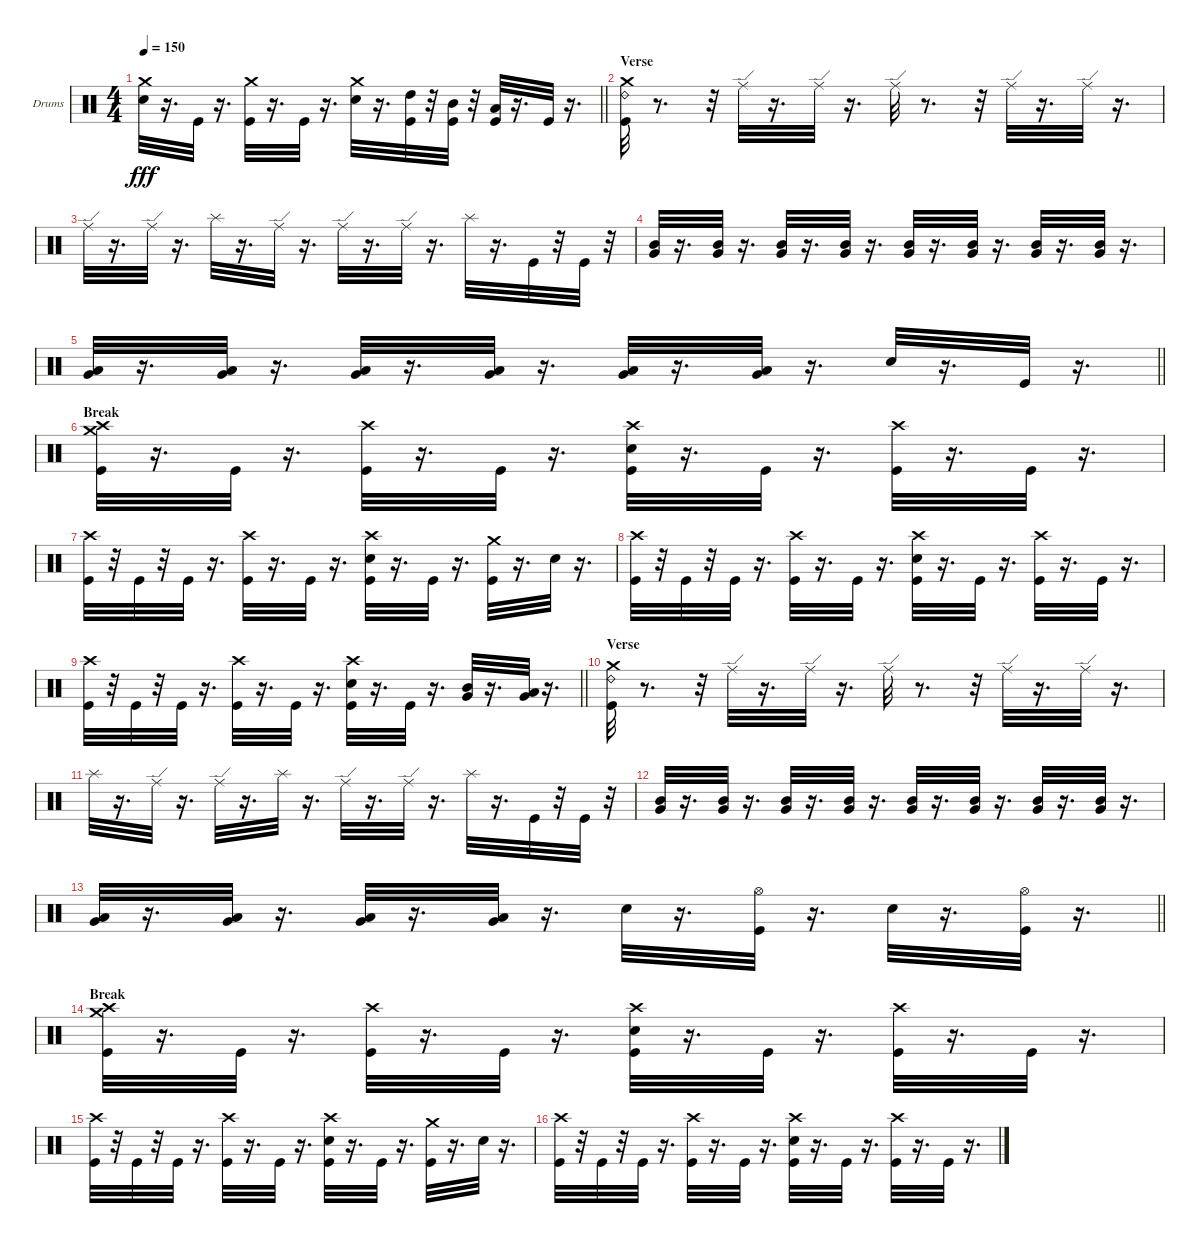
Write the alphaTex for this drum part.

\bracketExtendMode groupsimilarinstruments
\firstSystemTrackNameOrientation horizontal
\otherSystemsTrackNameOrientation horizontal
\track ("Dave McClain" "Drums") {mute instrument percussion}
\staff {score}
\articulation defaults
\ts (4 4)
\tempo 150
\clef neutral
\barLineRight lightlight
\ks c
("Snare (hit) 2" "Crash medium (hit)").32{dy fff} r.16{d} "Kick (hit)".32 r.16{d} ("Kick (hit)" "Crash medium (hit)").32 r.16{d} "Kick (hit)".32 r.16{d} ("Snare (hit) 2" "Crash medium (hit)").32 r.16{d} ("High Tom (hit)" "Kick (hit)").32 r.32 ("Mid Tom (hit)" "Kick (hit)").32 r.32 ("Low Tom (hit)" "Kick (hit)").32 r.16{d} "Kick (hit)".32 r.16{d} |
\section ("" "Verse")
("Ride (bell) 2" "Crash medium (hit)" "Kick (hit)").32 r.8{d} r.32 "Ride (edge)".32 r.16{d} "Ride (edge)".32 r.16{d} "Ride (edge)".32 r.8{d} r.32 "Ride (edge)".32 r.16{d} "Ride (edge)".32 r.16{d} |
"Ride (edge)".32 r.16{d} "Ride (edge)".32 r.16{d} "Splash (hit)".32 r.16{d} "Ride (edge)".32 r.16{d} "Ride (edge)".32 r.16{d} "Ride (edge)".32 r.16{d} "Splash (hit)".32 r.16{d} "Kick (hit)".32 r.32 "Kick (hit)".32 r.32 |
("Mid Tom (hit)" "Very Low Tom (hit)").32 r.16{d} ("Mid Tom (hit)" "Very Low Tom (hit)").32 r.16{d} ("Mid Tom (hit)" "Very Low Tom (hit)").32 r.16{d} ("Mid Tom (hit)" "Very Low Tom (hit)").32 r.16{d} ("Mid Tom (hit)" "Very Low Tom (hit)").32 r.16{d} ("Mid Tom (hit)" "Very Low Tom (hit)").32 r.16{d} ("Mid Tom (hit)" "Very Low Tom (hit)").32 r.16{d} ("Mid Tom (hit)" "Very Low Tom (hit)").32 r.16{d} |
\barLineRight lightlight
("Low Tom (hit)" "Very Low Tom (hit)").32 r.16{d} ("Low Tom (hit)" "Very Low Tom (hit)").32 r.16{d} ("Low Tom (hit)" "Very Low Tom (hit)").32 r.16{d} ("Low Tom (hit)" "Very Low Tom (hit)").32 r.16{d} ("Low Tom (hit)" "Very Low Tom (hit)").32 r.16{d} ("Low Tom (hit)" "Very Low Tom (hit)").32 r.16{d} "Snare (hit) 2".32 r.16{d} "Kick (hit)".32 r.16{d} |
\section ("" "Break")
("Crash high (hit)" "Crash medium (hit)" "Kick (hit)").32 r.16{d} "Kick (hit)".32 r.16{d} ("Crash high (hit)" "Kick (hit)").32 r.16{d} "Kick (hit)".32 r.16{d} ("Snare (hit) 2" "Crash high (hit)" "Kick (hit)").32 r.16{d} "Kick (hit)".32 r.16{d} ("Crash high (hit)" "Kick (hit)").32 r.16{d} "Kick (hit)".32 r.16{d} |
("Crash high (hit)" "Kick (hit)").32 r.32 "Kick (hit)".32 r.32 "Kick (hit)".32 r.16{d} ("Crash high (hit)" "Kick (hit)").32 r.16{d} "Kick (hit)".32 r.16{d} ("Snare (hit) 2" "Crash high (hit)" "Kick (hit)").32 r.16{d} "Kick (hit)".32 r.16{d} ("Crash medium (hit)" "Kick (hit)").32 r.16{d} "Snare (hit) 2".32 r.16{d} |
("Crash high (hit)" "Kick (hit)").32 r.32 "Kick (hit)".32 r.32 "Kick (hit)".32 r.16{d} ("Kick (hit)" "Crash high (hit)").32 r.16{d} "Kick (hit)".32 r.16{d} ("Snare (hit) 2" "Kick (hit)" "Crash high (hit)").32 r.16{d} "Kick (hit)".32 r.16{d} ("Crash high (hit)" "Kick (hit)").32 r.16{d} "Kick (hit)".32 r.16{d} |
\barLineRight lightlight
("Crash high (hit)" "Kick (hit)").32 r.32 "Kick (hit)".32 r.32 "Kick (hit)".32 r.16{d} ("Crash high (hit)" "Kick (hit)").32 r.16{d} "Kick (hit)".32 r.16{d} ("Snare (hit) 2" "Crash high (hit)" "Kick (hit)").32 r.16{d} "Kick (hit)".32 r.16{d} ("Mid Tom (hit)" "Very Low Tom (hit)").32 r.16{d} ("Very Low Tom (hit)" "Low Tom (hit)").32 r.16{d} |
\section ("" "Verse")
("Ride (bell) 2" "Crash medium (hit)" "Kick (hit)").32 r.8{d} r.32 "Ride (edge)".32 r.16{d} "Ride (edge)".32 r.16{d} "Ride (edge)".32 r.8{d} r.32 "Ride (edge)".32 r.16{d} "Ride (edge)".32 r.16{d} |
"Splash (hit)".32 r.16{d} "Ride (edge)".32 r.16{d} "Ride (edge)".32 r.16{d} "Splash (hit)".32 r.16{d} "Ride (edge)".32 r.16{d} "Ride (edge)".32 r.16{d} "Splash (hit)".32 r.16{d} "Kick (hit)".32 r.32 "Kick (hit)".32 r.32 |
("Mid Tom (hit)" "Very Low Tom (hit)").32 r.16{d} ("Mid Tom (hit)" "Very Low Tom (hit)").32 r.16{d} ("Mid Tom (hit)" "Very Low Tom (hit)").32 r.16{d} ("Mid Tom (hit)" "Very Low Tom (hit)").32 r.16{d} ("Mid Tom (hit)" "Very Low Tom (hit)").32 r.16{d} ("Mid Tom (hit)" "Very Low Tom (hit)").32 r.16{d} ("Mid Tom (hit)" "Very Low Tom (hit)").32 r.16{d} ("Mid Tom (hit)" "Very Low Tom (hit)").32 r.16{d} |
\barLineRight lightlight
("Low Tom (hit)" "Very Low Tom (hit)").32 r.16{d} ("Low Tom (hit)" "Very Low Tom (hit)").32 r.16{d} ("Low Tom (hit)" "Very Low Tom (hit)").32 r.16{d} ("Low Tom (hit)" "Very Low Tom (hit)").32 r.16{d} "Snare (hit) 2".32 r.16{d} ("Hi-Hat (open)" "Kick (hit)").32 r.16{d} "Snare (hit) 2".32 r.16{d} ("Hi-Hat (open)" "Kick (hit)").32 r.16{d} |
\section ("" "Break")
("Crash high (hit)" "Crash medium (hit)" "Kick (hit)").32 r.16{d} "Kick (hit)".32 r.16{d} ("Crash high (hit)" "Kick (hit)").32 r.16{d} "Kick (hit)".32 r.16{d} ("Snare (hit) 2" "Crash high (hit)" "Kick (hit)").32 r.16{d} "Kick (hit)".32 r.16{d} ("Crash high (hit)" "Kick (hit)").32 r.16{d} "Kick (hit)".32 r.16{d} |
("Crash high (hit)" "Kick (hit)").32 r.32 "Kick (hit)".32 r.32 "Kick (hit)".32 r.16{d} ("Crash high (hit)" "Kick (hit)").32 r.16{d} "Kick (hit)".32 r.16{d} ("Snare (hit) 2" "Crash high (hit)" "Kick (hit)").32 r.16{d} "Kick (hit)".32 r.16{d} ("Crash medium (hit)" "Kick (hit)").32 r.16{d} "Snare (hit) 2".32 r.16{d} |
("Crash high (hit)" "Kick (hit)").32 r.32 "Kick (hit)".32 r.32 "Kick (hit)".32 r.16{d} ("Kick (hit)" "Crash high (hit)").32 r.16{d} "Kick (hit)".32 r.16{d} ("Snare (hit) 2" "Kick (hit)" "Crash high (hit)").32 r.16{d} "Kick (hit)".32 r.16{d} ("Crash high (hit)" "Kick (hit)").32 r.16{d} "Kick (hit)".32 r.16{d}
